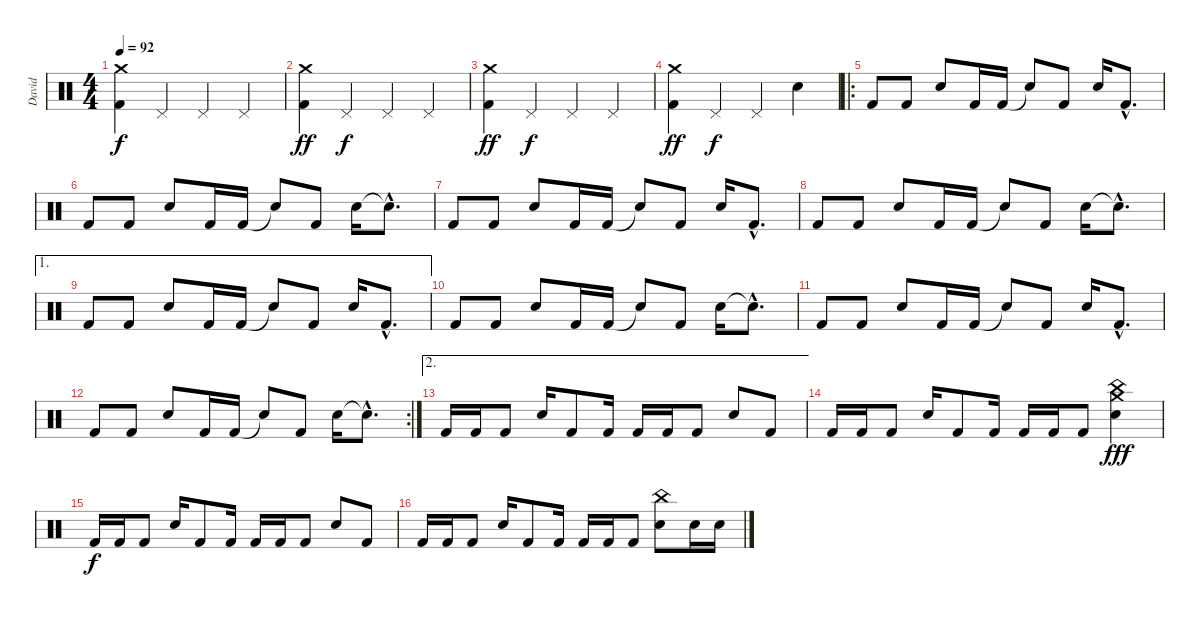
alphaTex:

\track ("David" "David") {instrument percussion}
\staff {score}
\articulation defaults
\ts (4 4)
\tempo 92
\clef neutral
\ks c
("Crash medium (hit)" "Kick (hit) 2").4{dy f} "Pedal Hi-Hat (hit)".4 "Pedal Hi-Hat (hit)".4 "Pedal Hi-Hat (hit)".4 |
("Crash medium (hit)" "Kick (hit) 2").4{dy ff} "Pedal Hi-Hat (hit)".4{dy f} "Pedal Hi-Hat (hit)".4 "Pedal Hi-Hat (hit)".4 |
("Crash medium (hit)" "Kick (hit) 2").4{dy ff} "Pedal Hi-Hat (hit)".4{dy f} "Pedal Hi-Hat (hit)".4 "Pedal Hi-Hat (hit)".4 |
("Crash medium (hit)" "Kick (hit) 2").4{dy ff} "Pedal Hi-Hat (hit)".4{dy f} "Pedal Hi-Hat (hit)".4 "Snare (hit) 2".4 |
\ro "Kick (hit) 2".8 "Kick (hit) 2".8 "Snare (hit) 2".8 "Kick (hit) 2".16 "Kick (hit) 2".16 "Snare (hit)"{t}.8 "Kick (hit) 2".8 "Snare (hit) 2".16 "Kick (hit) 2"{hac}.8{d}
|
"Kick (hit) 2".8 "Kick (hit) 2".8 "Snare (hit) 2".8 "Kick (hit) 2".16 "Kick (hit) 2".16 "Snare (hit)"{t}.8 "Kick (hit) 2".8 "Snare (hit) 2".16 "Snare (hit)"{hac t}.8{d} |
"Kick (hit) 2".8 "Kick (hit) 2".8 "Snare (hit) 2".8 "Kick (hit) 2".16 "Kick (hit) 2".16 "Snare (hit)"{t}.8 "Kick (hit) 2".8 "Snare (hit) 2".16 "Kick (hit) 2"{hac}.8{d} |
"Kick (hit) 2".8 "Kick (hit) 2".8 "Snare (hit) 2".8 "Kick (hit) 2".16 "Kick (hit) 2".16 "Snare (hit)"{t}.8 "Kick (hit) 2".8 "Snare (hit) 2".16 "Snare (hit)"{hac t}.8{d} |
\ae 1 "Kick (hit) 2".8 "Kick (hit) 2".8 "Snare (hit) 2".8 "Kick (hit) 2".16 "Kick (hit) 2".16 "Snare (hit)"{t}.8 "Kick (hit) 2".8 "Snare (hit) 2".16 "Kick (hit) 2"{hac}.8{d}
|
"Kick (hit) 2".8 "Kick (hit) 2".8 "Snare (hit) 2".8 "Kick (hit) 2".16 "Kick (hit) 2".16 "Snare (hit)"{t}.8 "Kick (hit) 2".8 "Snare (hit) 2".16 "Snare (hit)"{hac t}.8{d} |
"Kick (hit) 2".8 "Kick (hit) 2".8 "Snare (hit) 2".8 "Kick (hit) 2".16 "Kick (hit) 2".16 "Snare (hit)"{t}.8 "Kick (hit) 2".8 "Snare (hit) 2".16 "Kick (hit) 2"{hac}.8{d} |
\rc 2 "Kick (hit) 2".8 "Kick (hit) 2".8 "Snare (hit) 2".8 "Kick (hit) 2".16 "Kick (hit) 2".16 "Snare (hit)"{t}.8 "Kick (hit) 2".8 "Snare (hit) 2".16 "Snare (hit)"{hac t}.8{d}
|
\ae 2 "Kick (hit) 2".16 "Kick (hit) 2".16 "Kick (hit) 2".8 "Snare (hit) 2".16 "Kick (hit) 2".8 "Kick (hit) 2".16 "Kick (hit) 2".16 "Kick (hit) 2".16 "Kick (hit) 2".8 "Snare (hit) 2".8 "Kick (hit) 2".8
|
"Kick (hit) 2".16 "Kick (hit) 2".16 "Kick (hit) 2".8 "Snare (hit) 2".16 "Kick (hit) 2".8 "Kick (hit) 2".16 "Kick (hit) 2".16 "Kick (hit) 2".16 "Kick (hit) 2".8 ("Crash medium (hit)" "China (hit)" "Snare (hit) 2").4{dy fff} |
"Kick (hit) 2".16{dy f} "Kick (hit) 2".16 "Kick (hit) 2".8 "Snare (hit) 2".16 "Kick (hit) 2".8 "Kick (hit) 2".16 "Kick (hit) 2".16 "Kick (hit) 2".16 "Kick (hit) 2".8 "Snare (hit) 2".8 "Kick (hit) 2".8 |
"Kick (hit) 2".16 "Kick (hit) 2".16 "Kick (hit) 2".8 "Snare (hit) 2".16 "Kick (hit) 2".8 "Kick (hit) 2".16 "Kick (hit) 2".16 "Kick (hit) 2".16 "Kick (hit) 2".8 ("China (hit)" "Snare (hit) 2").8 "Snare (hit) 2".16 "Snare (hit) 2".16
